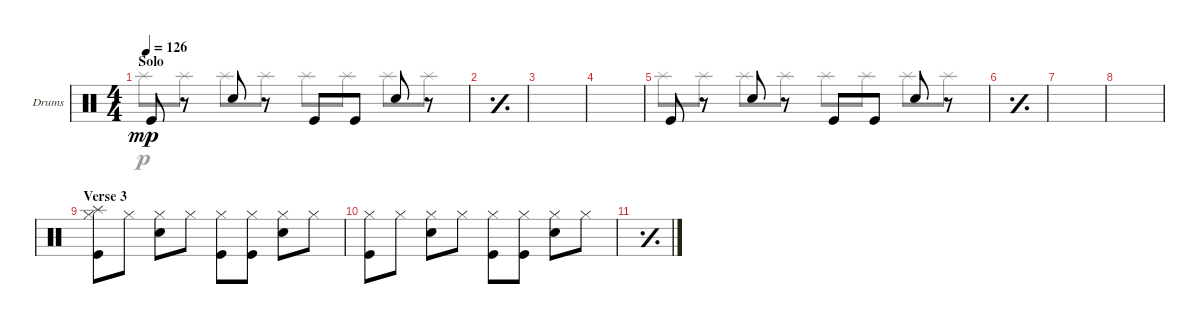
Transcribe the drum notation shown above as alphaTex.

\defaultSystemsLayout 4
\bracketExtendMode groupsimilarinstruments
\firstSystemTrackNameOrientation horizontal
\otherSystemsTrackNameOrientation horizontal
\track ("Drumkit" "Drums") {instrument percussion}
\staff {score}
\articulation defaults
\voice
\ts (4 4)
\section ("" "Solo")
\tempo 126
\clef neutral
\ks c "Kick (hit)".8{dy mp}
r.8 "Snare (hit) 2".8 r.8 "Kick (hit)".8 "Kick (hit)".8 "Snare (hit) 2".8 r.8 |
\simile simple
|
|
|
\simile none "Kick (hit)".8
r.8 "Snare (hit) 2".8 r.8 "Kick (hit)".8 "Kick (hit)".8 "Snare (hit) 2".8 r.8 |
\simile simple
|
|
|
\section ("" "Verse 3")
\simile none
("Hi-Hat (closed)" "Kick (hit)" "Splash (hit)").8 "Hi-Hat (closed)".8 ("Hi-Hat (closed)" "Snare (hit) 2").8 "Hi-Hat (closed)".8 ("Hi-Hat (closed)" "Kick (hit)").8 ("Hi-Hat (closed)" "Kick (hit)").8 ("Hi-Hat (closed)" "Snare (hit) 2").8 "Hi-Hat (closed)".8 |
("Hi-Hat (closed)" "Kick (hit)").8 "Hi-Hat (closed)".8 ("Hi-Hat (closed)" "Snare (hit) 2").8 "Hi-Hat (closed)".8 ("Hi-Hat (closed)" "Kick (hit)").8 ("Hi-Hat (closed)" "Kick (hit)").8 ("Hi-Hat (closed)" "Snare (hit) 2").8 "Hi-Hat (closed)".8 |
\simile simple
|
|
|
|
|
\voice
\clef neutral
\ottava regular
\simile none
\ks c "Splash (hit)".8{dy p} "Splash (hit)".8 "Splash (hit)".8 "Splash (hit)".8 "Splash (hit)".8 "Splash (hit)".8 "Splash (hit)".8 "Splash (hit)".8
|
\simile simple
|
|
|
\simile none "Splash (hit)".8 "Splash (hit)".8 "Splash (hit)".8 "Splash (hit)".8 "Splash (hit)".8 "Splash (hit)".8 "Splash (hit)".8 "Splash (hit)".8
|
\simile simple
|
|
|
\simile none
|
|
\simile simple
|
|
|
|
|
